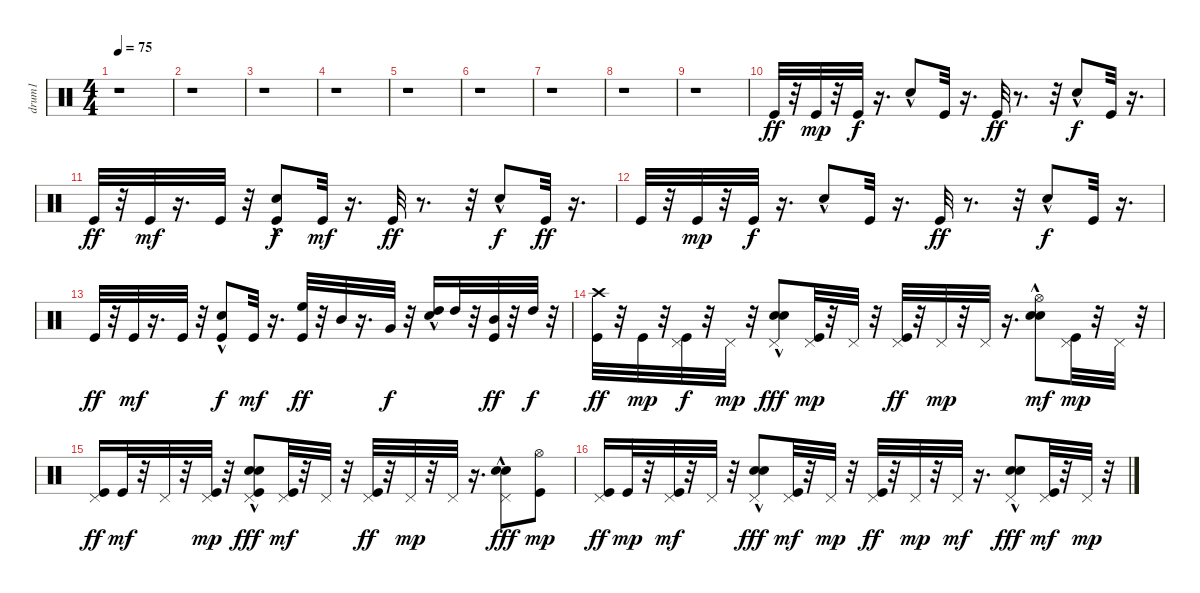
\track ("drum1" "drum1") {instrument percussion}
\staff {score}
\articulation defaults
\ts (4 4)
\tempo 75
\clef neutral
\ks c
r.1{dy ff} |
r.1 |
r.1 |
r.1 |
r.1 |
r.1 |
r.1 |
r.1 |
r.1 |
"Kick (hit)".32 r.32 "Kick (hit)".32{dy mp} r.32 "Kick (hit)".32{dy f} r.16{d} "Hand Clap (hit)"{hac}.8 "Kick (hit)".32 r.16{d} "Kick (hit)".32{dy ff} r.8{d} r.32 "Hand Clap (hit)"{hac}.8{dy f} "Kick (hit)".32 r.16{d} |
"Kick (hit)".32{dy ff} r.32 "Kick (hit)".32{dy mf} r.16{d} "Kick (hit)".32 r.32 ("Kick (hit)" "Hand Clap (hit)"{hac}).8{dy f} "Kick (hit)".32{dy mf} r.16{d} "Kick (hit)".32{dy ff} r.8{d} r.32 "Hand Clap (hit)"{hac}.8{dy f} "Kick (hit)".32{dy ff} r.16{d} |
"Kick (hit)".32 r.32 "Kick (hit)".32{dy mp} r.32 "Kick (hit)".32{dy f} r.16{d} "Hand Clap (hit)"{hac}.8 "Kick (hit)".32 r.16{d} "Kick (hit)".32{dy ff} r.8{d} r.32 "Hand Clap (hit)"{hac}.8{dy f} "Kick (hit)".32 r.16{d} |
"Kick (hit)".32{dy ff} r.32 "Kick (hit)".32{dy mf} r.16{d} "Kick (hit)".32 r.32 ("Kick (hit)" "Hand Clap (hit)"{hac}).8{dy f} "Kick (hit)".32{dy mf} r.16{d} ("Kick (hit)" "High Floor Tom (hit)").32{dy ff} r.32 "Mid Tom (hit)".32 r.16{d} "Very Low Tom (hit)".32{dy f} r.32 ("Hand Clap (hit)"{hac} "High Tom (hit)").16 "High Tom (hit)".32 r.32 ("Kick (hit)" "Mid Tom (hit)").32{dy ff} r.32 "High Tom (hit)".32{dy f} r.32 |
("Kick (hit)" "Crash high (hit)").32{dy ff} r.32 "Kick (hit)".32{dy mp} r.32 ("Kick (hit)" "Pedal Hi-Hat (hit)").32{dy f} r.32 "Pedal Hi-Hat (hit)".32{dy mp} r.32 ("Hand Clap (hit)"{hac} "Electric Snare (hit)" "Pedal Hi-Hat (hit)").8{dy fff} ("Kick (hit)" "Pedal Hi-Hat (hit)").32{dy mp} r.32 "Pedal Hi-Hat (hit)".32 r.32 ("Kick (hit)" "Pedal Hi-Hat (hit)").32{dy ff} r.32 "Pedal Hi-Hat (hit)".32{dy mp} r.32 "Pedal Hi-Hat (hit)".32 r.16{d} ("Hand Clap (hit)"{hac} "Electric Snare (hit)" "Hi-Hat (open)").8{dy mf} ("Kick (hit)" "Pedal Hi-Hat (hit)").32{dy mp} r.32 "Pedal Hi-Hat (hit)".32 r.32 |
("Kick (hit)" "Pedal Hi-Hat (hit)").16{dy ff} "Kick (hit)".32{dy mf} r.32 "Pedal Hi-Hat (hit)".32 r.32 ("Kick (hit)" "Pedal Hi-Hat (hit)").32{dy mp} r.32 ("Kick (hit)" "Hand Clap (hit)"{hac} "Electric Snare (hit)" "Pedal Hi-Hat (hit)").8{dy fff} ("Kick (hit)" "Pedal Hi-Hat (hit)").32{dy mf} r.32 "Pedal Hi-Hat (hit)".32 r.32 ("Kick (hit)" "Pedal Hi-Hat (hit)").32{dy ff} r.32 "Pedal Hi-Hat (hit)".32{dy mp} r.32 "Pedal Hi-Hat (hit)".32 r.16{d} ("Hand Clap (hit)"{hac} "Electric Snare (hit)" "Pedal Hi-Hat (hit)").8{dy fff} ("Kick (hit)" "Hi-Hat (open)").8{dy mp} |
("Kick (hit)" "Pedal Hi-Hat (hit)").16{dy ff} "Kick (hit)".32{dy mp} r.32 ("Kick (hit)" "Pedal Hi-Hat (hit)").32{dy mf} r.32 "Pedal Hi-Hat (hit)".32 r.32 ("Hand Clap (hit)"{hac} "Electric Snare (hit)" "Pedal Hi-Hat (hit)").8{dy fff} ("Kick (hit)" "Pedal Hi-Hat (hit)").32{dy mf} r.32 "Pedal Hi-Hat (hit)".32{dy mp} r.32 ("Kick (hit)" "Pedal Hi-Hat (hit)").32{dy ff} r.32 "Pedal Hi-Hat (hit)".32{dy mp} r.32 "Pedal Hi-Hat (hit)".32{dy mf} r.16{d} ("Hand Clap (hit)"{hac} "Electric Snare (hit)" "Pedal Hi-Hat (hit)").8{dy fff} ("Kick (hit)" "Pedal Hi-Hat (hit)").32{dy mf} r.32 "Pedal Hi-Hat (hit)".32{dy mp} r.32
